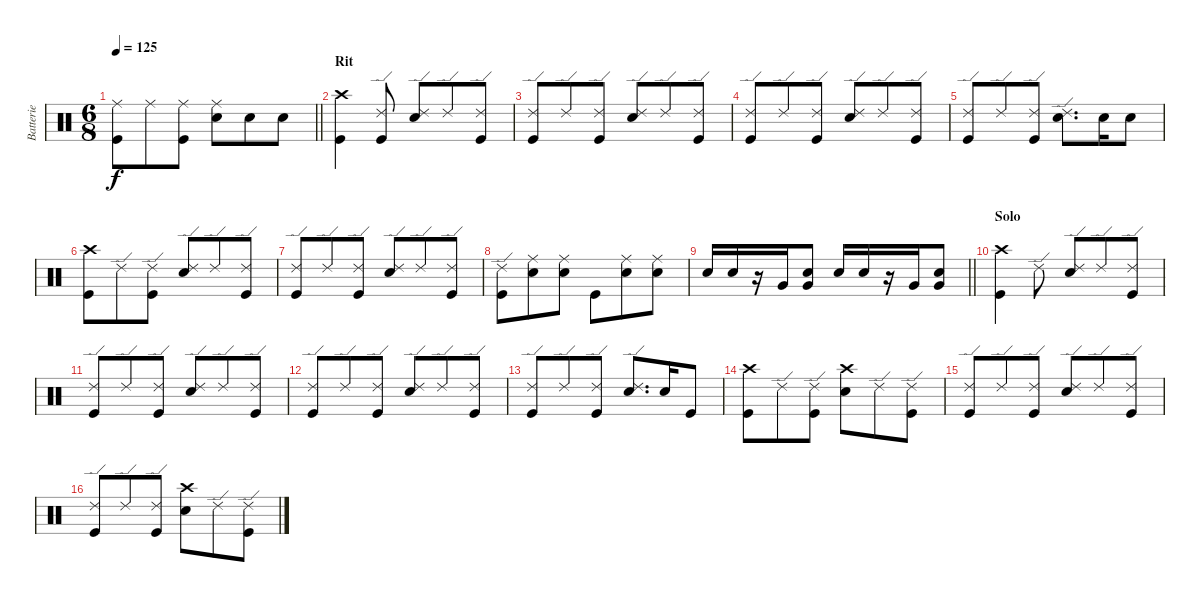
\track ("Batterie" "Batterie") {instrument percussion}
\staff {score}
\articulation defaults
\ts (6 8)
\tempo 125
\clef neutral
\barLineRight lightlight
\ks c
("Ride (middle)" "Kick (hit)").8{dy f} "Ride (middle)".8 ("Ride (middle)" "Kick (hit)").8 ("Ride (middle)" "Snare (hit) 2").8 "Snare (hit) 2".8 "Snare (hit) 2".8 |
\section ("" "Rit")
("Crash high (hit)" "Kick (hit)").4 ("Ride (edge) 2" "Kick (hit)").8 ("Ride (edge) 2" "Snare (hit) 2").8 "Ride (edge) 2".8 ("Ride (edge) 2" "Kick (hit)").8 |
("Ride (edge) 2" "Kick (hit)").8 "Ride (edge) 2".8 ("Ride (edge) 2" "Kick (hit)").8 ("Ride (edge) 2" "Snare (hit) 2").8 "Ride (edge) 2".8 ("Ride (edge) 2" "Kick (hit)").8 |
("Ride (edge) 2" "Kick (hit)").8 "Ride (edge) 2".8 ("Ride (edge) 2" "Kick (hit)").8 ("Ride (edge) 2" "Snare (hit) 2").8 "Ride (edge) 2".8 ("Ride (edge) 2" "Kick (hit)").8 |
("Ride (edge) 2" "Kick (hit)").8 "Ride (edge) 2".8 ("Ride (edge) 2" "Kick (hit)").8 ("Ride (edge) 2" "Snare (hit) 2").8{d} "Snare (hit) 2".16 "Snare (hit) 2".8 |
("Crash high (hit)" "Kick (hit)").8 "Ride (edge) 2".8 ("Ride (edge) 2" "Kick (hit)").8 ("Ride (edge) 2" "Snare (hit) 2").8 "Ride (edge) 2".8 ("Ride (edge) 2" "Kick (hit)").8 |
("Ride (edge) 2" "Kick (hit)").8 "Ride (edge) 2".8 ("Ride (edge) 2" "Kick (hit)").8 ("Ride (edge) 2" "Snare (hit) 2").8 "Ride (edge) 2".8 ("Ride (edge) 2" "Kick (hit)").8 |
("Ride (edge) 2" "Kick (hit)").8 ("Ride (middle)" "Snare (hit) 2").8 ("Ride (middle)" "Snare (hit) 2").8 "Kick (hit)".8 ("Ride (middle)" "Snare (hit) 2").8 ("Ride (middle)" "Snare (hit) 2").8 |
\barLineRight lightlight "Snare (hit) 2".16 "Snare (hit) 2".16
r.16 "Very Low Tom (hit)".16 ("Snare (hit) 2" "Very Low Tom (hit)").8 "Snare (hit) 2".16 "Snare (hit) 2".16 r.16 "Very Low Tom (hit)".16 ("Snare (hit) 2" "Very Low Tom (hit)").8 |
\section ("" "Solo")
("Crash high (hit)" "Kick (hit)").4 "Ride (edge) 2".8 ("Ride (edge) 2" "Snare (hit) 2").8 "Ride (edge) 2".8 ("Ride (edge) 2" "Kick (hit)").8 |
("Ride (edge) 2" "Kick (hit)").8 "Ride (edge) 2".8 ("Ride (edge) 2" "Kick (hit)").8 ("Ride (edge) 2" "Snare (hit) 2").8 "Ride (edge) 2".8 ("Ride (edge) 2" "Kick (hit)").8 |
("Ride (edge) 2" "Kick (hit)").8 "Ride (edge) 2".8 ("Ride (edge) 2" "Kick (hit)").8 ("Ride (edge) 2" "Snare (hit) 2").8 "Ride (edge) 2".8 ("Ride (edge) 2" "Kick (hit)").8 |
("Ride (edge) 2" "Kick (hit)").8 "Ride (edge) 2".8 ("Ride (edge) 2" "Kick (hit)").8 ("Ride (edge) 2" "Snare (hit) 2").8{d} "Snare (hit) 2".16 "Kick (hit)".8 |
("Crash high (hit)" "Kick (hit)").8 "Ride (edge) 2".8 ("Ride (edge) 2" "Kick (hit)").8 ("Crash high (hit)" "Snare (hit) 2").8 "Ride (edge) 2".8 ("Ride (edge) 2" "Kick (hit)").8 |
("Ride (edge) 2" "Kick (hit)").8 "Ride (edge) 2".8 ("Ride (edge) 2" "Kick (hit)").8 ("Ride (edge) 2" "Snare (hit) 2").8 "Ride (edge) 2".8 ("Ride (edge) 2" "Kick (hit)").8 |
("Ride (edge) 2" "Kick (hit)").8 "Ride (edge) 2".8 ("Ride (edge) 2" "Kick (hit)").8 ("Crash high (hit)" "Snare (hit) 2").8 "Ride (edge) 2".8 ("Ride (edge) 2" "Kick (hit)").8
